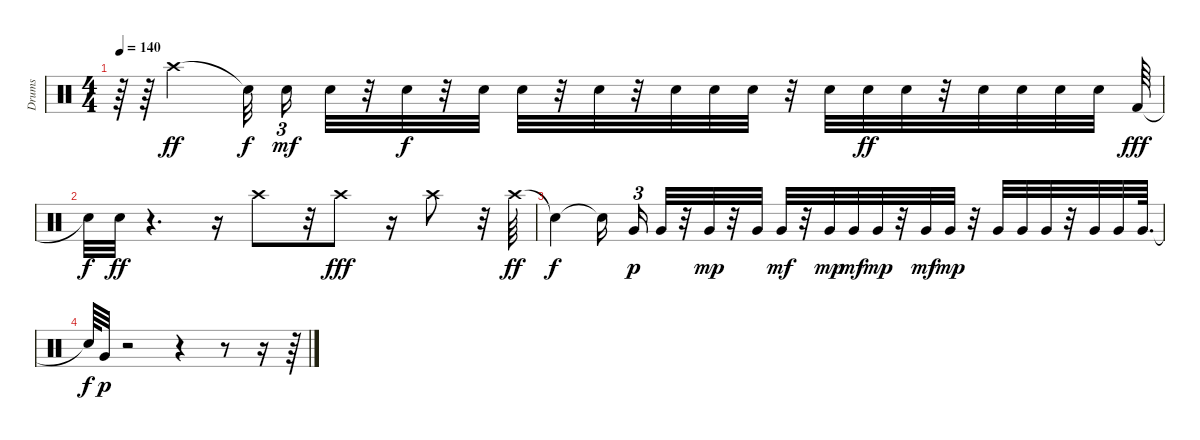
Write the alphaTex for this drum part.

\track ("Drums" "Drums") {instrument percussion}
\staff {score}
\articulation defaults
\ts (4 4)
\tempo 140
\clef neutral
\ks c
r.64{dy ff} r.64 "Crash high (hit)".4 "Snare (hit)"{t}.32{dy f beam splitsecondary} "Snare (hit) 2".16{tu (3 2) dy mf} "Snare (hit) 2".32 r.32 "Snare (hit) 2".32{dy f} r.32 "Snare (hit) 2".32 "Snare (hit) 2".32 r.32 "Snare (hit) 2".32 r.32 "Snare (hit) 2".32 "Snare (hit) 2".32 "Snare (hit) 2".32 r.32 "Snare (hit) 2".32 "Snare (hit) 2".32{dy ff} "Snare (hit) 2".32 r.32 "Snare (hit) 2".32 "Snare (hit) 2".32 "Snare (hit) 2".32 "Snare (hit) 2".32 "Kick (hit) 2".64{dy fff} |
"Snare (hit)"{t}.32{dy f} "Snare (hit) 2".32{dy ff} r.4{d} r.16 "Crash high (hit)".8 r.32 "Crash high (hit)".8{dy fff} r.16 "Crash high (hit)".8 r.32 "Crash high (hit)".64{dy ff} |
"Snare (hit)"{t}.4{dy f} "Snare (hit)"{t}.16{beam splitsecondary} "Very Low Tom (hit)".16{tu (3 2) dy p} "Very Low Tom (hit)".32 r.32 "Very Low Tom (hit)".32{dy mp} r.32 "Very Low Tom (hit)".32 "Very Low Tom (hit)".32{dy mf} r.32 "Very Low Tom (hit)".32{dy mp} "Very Low Tom (hit)".32{dy mf} "Very Low Tom (hit)".32{dy mp} r.32 "Very Low Tom (hit)".32{dy mf} "Very Low Tom (hit)".32{dy mp} r.32 "Very Low Tom (hit)".32 "Very Low Tom (hit)".32 "Very Low Tom (hit)".32 r.32 "Very Low Tom (hit)".32 "Very Low Tom (hit)".32 "Very Low Tom (hit)".64{d} |
"Snare (hit)"{t}.64{dy f} "Very Low Tom (hit)".32{dy p} r.2 r.4 r.8 r.16 r.64
